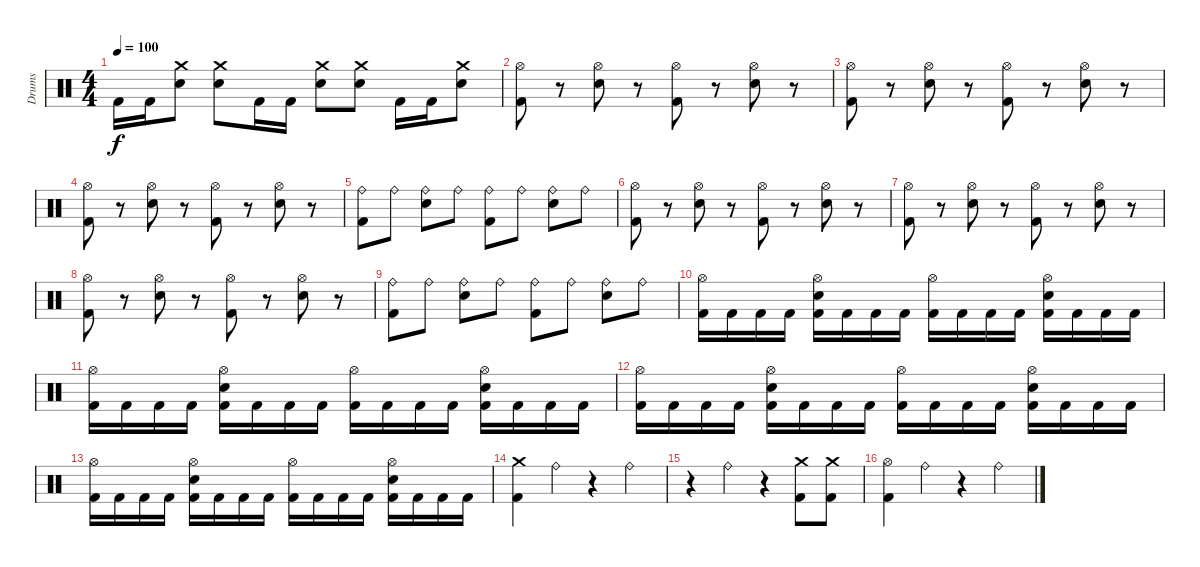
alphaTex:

\track ("Drums" "Drums") {instrument percussion}
\staff {score}
\articulation defaults
\ts (4 4)
\tempo 100
\clef neutral
\ks c "Kick (hit) 2".16{dy f} "Kick (hit) 2".16
("Crash medium (hit)" "Snare (hit) 2").8 ("Crash medium (hit)" "Snare (hit) 2").8 "Kick (hit) 2".16 "Kick (hit) 2".16 ("Crash medium (hit)" "Snare (hit) 2").8 ("Crash medium (hit)" "Snare (hit) 2").8 "Kick (hit) 2".16 "Kick (hit) 2".16 ("Crash medium (hit)" "Snare (hit) 2").8 |
("Hi-Hat (open)" "Kick (hit) 2").8 r.8 ("Hi-Hat (open)" "Snare (hit) 2").8 r.8 ("Hi-Hat (open)" "Kick (hit) 2").8 r.8 ("Hi-Hat (open)" "Snare (hit) 2").8 r.8 |
("Hi-Hat (open)" "Kick (hit) 2").8 r.8 ("Hi-Hat (open)" "Snare (hit) 2").8 r.8 ("Hi-Hat (open)" "Kick (hit) 2").8 r.8 ("Hi-Hat (open)" "Snare (hit) 2").8 r.8 |
("Hi-Hat (open)" "Kick (hit) 2").8 r.8 ("Hi-Hat (open)" "Snare (hit) 2").8 r.8 ("Hi-Hat (open)" "Kick (hit) 2").8 r.8 ("Hi-Hat (open)" "Snare (hit) 2").8 r.8 |
("Ride (bell)" "Kick (hit) 2").8 "Ride (bell)".8 ("Ride (bell)" "Snare (hit) 2").8 "Ride (bell)".8 ("Ride (bell)" "Kick (hit) 2").8 "Ride (bell)".8 ("Ride (bell)" "Snare (hit) 2").8 "Ride (bell)".8 |
("Hi-Hat (open)" "Kick (hit) 2").8 r.8 ("Hi-Hat (open)" "Snare (hit) 2").8 r.8 ("Hi-Hat (open)" "Kick (hit) 2").8 r.8 ("Hi-Hat (open)" "Snare (hit) 2").8 r.8 |
("Hi-Hat (open)" "Kick (hit) 2").8 r.8 ("Hi-Hat (open)" "Snare (hit) 2").8 r.8 ("Hi-Hat (open)" "Kick (hit) 2").8 r.8 ("Hi-Hat (open)" "Snare (hit) 2").8 r.8 |
("Hi-Hat (open)" "Kick (hit) 2").8 r.8 ("Hi-Hat (open)" "Snare (hit) 2").8 r.8 ("Hi-Hat (open)" "Kick (hit) 2").8 r.8 ("Hi-Hat (open)" "Snare (hit) 2").8 r.8 |
("Ride (bell)" "Kick (hit) 2").8 "Ride (bell)".8 ("Ride (bell)" "Snare (hit) 2").8 "Ride (bell)".8 ("Ride (bell)" "Kick (hit) 2").8 "Ride (bell)".8 ("Ride (bell)" "Snare (hit) 2").8 "Ride (bell)".8 |
("Hi-Hat (open)" "Kick (hit) 2").16 "Kick (hit) 2".16 "Kick (hit) 2".16 "Kick (hit) 2".16 ("Hi-Hat (open)" "Snare (hit) 2" "Kick (hit) 2").16 "Kick (hit) 2".16 "Kick (hit) 2".16 "Kick (hit) 2".16 ("Hi-Hat (open)" "Kick (hit) 2").16 "Kick (hit) 2".16 "Kick (hit) 2".16 "Kick (hit) 2".16 ("Hi-Hat (open)" "Snare (hit) 2" "Kick (hit) 2").16 "Kick (hit) 2".16 "Kick (hit) 2".16 "Kick (hit) 2".16 |
("Hi-Hat (open)" "Kick (hit) 2").16 "Kick (hit) 2".16 "Kick (hit) 2".16 "Kick (hit) 2".16 ("Hi-Hat (open)" "Snare (hit) 2" "Kick (hit) 2").16 "Kick (hit) 2".16 "Kick (hit) 2".16 "Kick (hit) 2".16 ("Hi-Hat (open)" "Kick (hit) 2").16 "Kick (hit) 2".16 "Kick (hit) 2".16 "Kick (hit) 2".16 ("Hi-Hat (open)" "Snare (hit) 2" "Kick (hit) 2").16 "Kick (hit) 2".16 "Kick (hit) 2".16 "Kick (hit) 2".16 |
("Hi-Hat (open)" "Kick (hit) 2").16 "Kick (hit) 2".16 "Kick (hit) 2".16 "Kick (hit) 2".16 ("Hi-Hat (open)" "Snare (hit) 2" "Kick (hit) 2").16 "Kick (hit) 2".16 "Kick (hit) 2".16 "Kick (hit) 2".16 ("Hi-Hat (open)" "Kick (hit) 2").16 "Kick (hit) 2".16 "Kick (hit) 2".16 "Kick (hit) 2".16 ("Hi-Hat (open)" "Snare (hit) 2" "Kick (hit) 2").16 "Kick (hit) 2".16 "Kick (hit) 2".16 "Kick (hit) 2".16 |
("Hi-Hat (open)" "Kick (hit) 2").16 "Kick (hit) 2".16 "Kick (hit) 2".16 "Kick (hit) 2".16 ("Hi-Hat (open)" "Snare (hit) 2" "Kick (hit) 2").16 "Kick (hit) 2".16 "Kick (hit) 2".16 "Kick (hit) 2".16 ("Hi-Hat (open)" "Kick (hit) 2").16 "Kick (hit) 2".16 "Kick (hit) 2".16 "Kick (hit) 2".16 ("Hi-Hat (open)" "Snare (hit) 2" "Kick (hit) 2").16 "Kick (hit) 2".16 "Kick (hit) 2".16 "Kick (hit) 2".16 |
("Crash medium (hit)" "Kick (hit) 2").4 "Ride (bell)".4 r.4 "Ride (bell)".4 |
r.4 "Ride (bell)".4 r.4 ("Crash medium (hit)" "Kick (hit) 2").8 ("Crash medium (hit)" "Kick (hit) 2").8 |
("Hi-Hat (open)" "Kick (hit) 2").4 "Ride (bell)".4 r.4 "Ride (bell)".4
